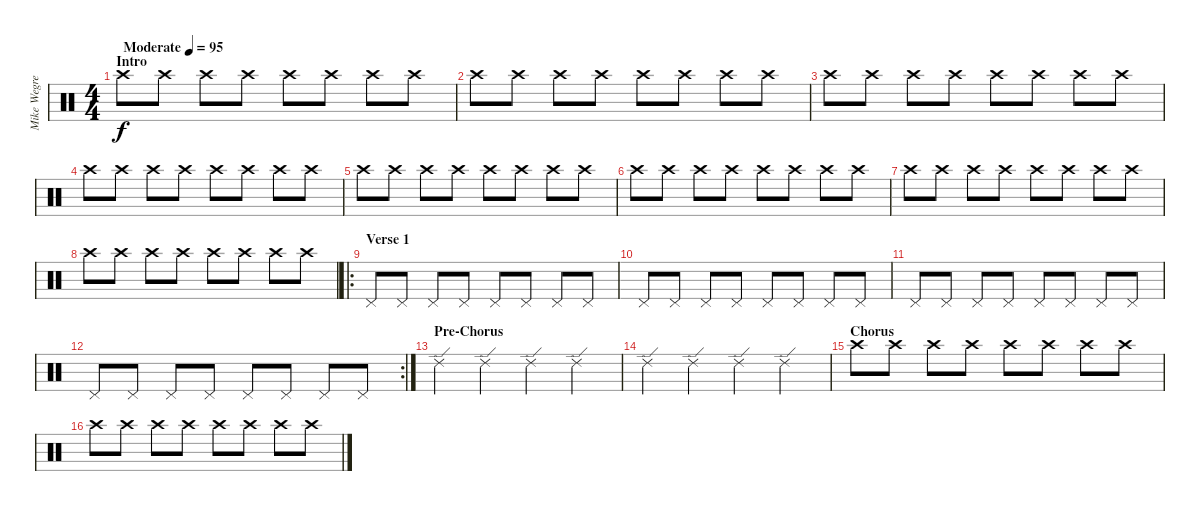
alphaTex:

\track ("Mike Wegren" "Mike Wegre") {instrument percussion}
\staff {score}
\articulation defaults
\ts (4 4)
\section ("" "Intro")
\tempo (95 "Moderate")
\clef neutral
\ks c "Crash high (hit)".8{dy f} "Crash high (hit)".8 "Crash high (hit)".8 "Crash high (hit)".8 "Crash high (hit)".8 "Crash high (hit)".8 "Crash high (hit)".8 "Crash high (hit)".8
|
"Crash high (hit)".8 "Crash high (hit)".8 "Crash high (hit)".8 "Crash high (hit)".8 "Crash high (hit)".8 "Crash high (hit)".8 "Crash high (hit)".8 "Crash high (hit)".8 |
"Crash high (hit)".8 "Crash high (hit)".8 "Crash high (hit)".8 "Crash high (hit)".8 "Crash high (hit)".8 "Crash high (hit)".8 "Crash high (hit)".8 "Crash high (hit)".8 |
"Crash high (hit)".8 "Crash high (hit)".8 "Crash high (hit)".8 "Crash high (hit)".8 "Crash high (hit)".8 "Crash high (hit)".8 "Crash high (hit)".8 "Crash high (hit)".8 |
"Crash high (hit)".8 "Crash high (hit)".8 "Crash high (hit)".8 "Crash high (hit)".8 "Crash high (hit)".8 "Crash high (hit)".8 "Crash high (hit)".8 "Crash high (hit)".8 |
"Crash high (hit)".8 "Crash high (hit)".8 "Crash high (hit)".8 "Crash high (hit)".8 "Crash high (hit)".8 "Crash high (hit)".8 "Crash high (hit)".8 "Crash high (hit)".8 |
"Crash high (hit)".8 "Crash high (hit)".8 "Crash high (hit)".8 "Crash high (hit)".8 "Crash high (hit)".8 "Crash high (hit)".8 "Crash high (hit)".8 "Crash high (hit)".8 |
"Crash high (hit)".8 "Crash high (hit)".8 "Crash high (hit)".8 "Crash high (hit)".8 "Crash high (hit)".8 "Crash high (hit)".8 "Crash high (hit)".8 "Crash high (hit)".8 |
\ro
\section ("" "Verse 1")
"Pedal Hi-Hat (hit)".8 "Pedal Hi-Hat (hit)".8 "Pedal Hi-Hat (hit)".8 "Pedal Hi-Hat (hit)".8 "Pedal Hi-Hat (hit)".8 "Pedal Hi-Hat (hit)".8 "Pedal Hi-Hat (hit)".8 "Pedal Hi-Hat (hit)".8 |
"Pedal Hi-Hat (hit)".8 "Pedal Hi-Hat (hit)".8 "Pedal Hi-Hat (hit)".8 "Pedal Hi-Hat (hit)".8 "Pedal Hi-Hat (hit)".8 "Pedal Hi-Hat (hit)".8 "Pedal Hi-Hat (hit)".8 "Pedal Hi-Hat (hit)".8 |
"Pedal Hi-Hat (hit)".8 "Pedal Hi-Hat (hit)".8 "Pedal Hi-Hat (hit)".8 "Pedal Hi-Hat (hit)".8 "Pedal Hi-Hat (hit)".8 "Pedal Hi-Hat (hit)".8 "Pedal Hi-Hat (hit)".8 "Pedal Hi-Hat (hit)".8 |
\rc 2 "Pedal Hi-Hat (hit)".8 "Pedal Hi-Hat (hit)".8 "Pedal Hi-Hat (hit)".8 "Pedal Hi-Hat (hit)".8 "Pedal Hi-Hat (hit)".8 "Pedal Hi-Hat (hit)".8 "Pedal Hi-Hat (hit)".8 "Pedal Hi-Hat (hit)".8
|
\section ("" "Pre-Chorus")
"Ride (edge) 2".4 "Ride (edge) 2".4 "Ride (edge) 2".4 "Ride (edge) 2".4 |
"Ride (edge) 2".4 "Ride (edge) 2".4 "Ride (edge) 2".4 "Ride (edge) 2".4 |
\section ("" "Chorus")
"Crash high (hit)".8 "Crash high (hit)".8 "Crash high (hit)".8 "Crash high (hit)".8 "Crash high (hit)".8 "Crash high (hit)".8 "Crash high (hit)".8 "Crash high (hit)".8 |
"Crash high (hit)".8 "Crash high (hit)".8 "Crash high (hit)".8 "Crash high (hit)".8 "Crash high (hit)".8 "Crash high (hit)".8 "Crash high (hit)".8 "Crash high (hit)".8
